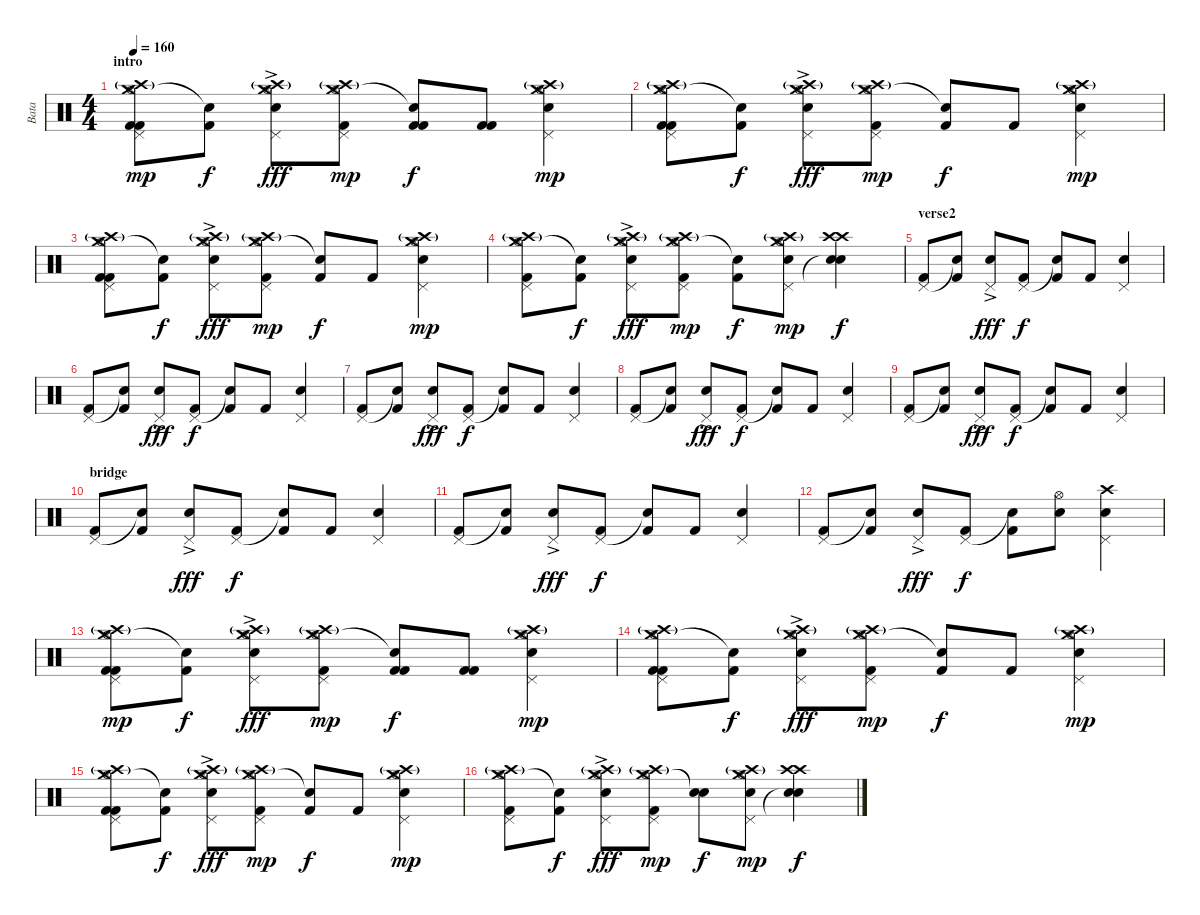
\track ("Bata" "Bata") {instrument percussion}
\staff {score}
\articulation defaults
\ts (4 4)
\section ("" "intro")
\tempo 160
\clef neutral
\ks c
("Crash medium (hit)" "Crash high (hit)"{g} "Pedal Hi-Hat (hit)" "Hi-Hat (open)" "Kick (hit) 2" "Kick (hit) 2").8{dy mp} ("Snare (hit)"{t} "Kick (hit) 2").8{dy f} ("Crash medium (hit)"{ac} "Crash high (hit)"{g} "Pedal Hi-Hat (hit)"{ac} "Hi-Hat (open)" "Snare (hit) 2").8{dy fff} ("Crash medium (hit)" "Crash high (hit)"{g} "Pedal Hi-Hat (hit)" "Hi-Hat (open)" "Kick (hit) 2").8{dy mp} ("Snare (hit)"{t} "Kick (hit) 2" "Kick (hit) 2").8{dy f} ("Kick (hit) 2" "Kick (hit) 2").8 ("Crash medium (hit)" "Crash high (hit)"{g} "Pedal Hi-Hat (hit)" "Hi-Hat (open)" "Snare (hit) 2").4{dy mp} |
("Crash medium (hit)" "Crash high (hit)"{g} "Pedal Hi-Hat (hit)" "Hi-Hat (open)" "Kick (hit) 2" "Kick (hit) 2").8 ("Snare (hit)"{t} "Kick (hit) 2").8{dy f} ("Crash medium (hit)"{ac} "Crash high (hit)"{g} "Pedal Hi-Hat (hit)"{ac} "Hi-Hat (open)" "Snare (hit) 2").8{dy fff} ("Crash medium (hit)" "Crash high (hit)"{g} "Pedal Hi-Hat (hit)" "Hi-Hat (open)" "Kick (hit) 2").8{dy mp} ("Snare (hit)"{t} "Kick (hit) 2").8{dy f} "Kick (hit) 2".8 ("Crash medium (hit)" "Crash high (hit)"{g} "Pedal Hi-Hat (hit)" "Hi-Hat (open)" "Snare (hit) 2").4{dy mp} |
("Crash medium (hit)" "Crash high (hit)"{g} "Pedal Hi-Hat (hit)" "Hi-Hat (open)" "Kick (hit) 2" "Kick (hit) 2").8 ("Snare (hit)"{t} "Kick (hit) 2").8{dy f} ("Crash medium (hit)"{ac} "Crash high (hit)"{g} "Pedal Hi-Hat (hit)"{ac} "Hi-Hat (open)" "Snare (hit) 2").8{dy fff} ("Crash medium (hit)" "Crash high (hit)"{g} "Pedal Hi-Hat (hit)" "Hi-Hat (open)" "Kick (hit) 2").8{dy mp} ("Snare (hit)"{t} "Kick (hit) 2").8{dy f} "Kick (hit) 2".8 ("Crash medium (hit)" "Crash high (hit)"{g} "Pedal Hi-Hat (hit)" "Hi-Hat (open)" "Snare (hit) 2").4{dy mp} |
("Crash medium (hit)" "Crash high (hit)"{g} "Pedal Hi-Hat (hit)" "Hi-Hat (open)" "Kick (hit) 2").8 ("Snare (hit)"{t} "Kick (hit) 2").8{dy f} ("Crash medium (hit)"{ac} "Crash high (hit)"{g} "Pedal Hi-Hat (hit)"{ac} "Hi-Hat (open)" "Snare (hit) 2").8{dy fff} ("Crash medium (hit)" "Crash high (hit)"{g} "Pedal Hi-Hat (hit)" "Hi-Hat (open)" "Kick (hit) 2").8{dy mp} ("Snare (hit)"{t} "Kick (hit) 2").8{dy f} ("Crash medium (hit)" "Crash high (hit)"{g} "Pedal Hi-Hat (hit)" "Hi-Hat (open)" "Snare (hit) 2").8{dy mp} ("Crash high (hit)" "Crash high (hit)" "Snare (hit)"{t} "Snare (hit) 2").4{dy f} |
\section ("" "verse2")
("Pedal Hi-Hat (hit)" "Kick (hit) 2").8 ("Snare (hit)"{t} "Kick (hit) 2").8 ("Pedal Hi-Hat (hit)"{ac} "Snare (hit) 2").8{dy fff} ("Pedal Hi-Hat (hit)" "Kick (hit) 2").8{dy f} ("Snare (hit)"{t} "Kick (hit) 2").8 "Kick (hit) 2".8 ("Pedal Hi-Hat (hit)" "Snare (hit) 2").4 |
("Pedal Hi-Hat (hit)" "Kick (hit) 2").8 ("Snare (hit)"{t} "Kick (hit) 2").8 ("Pedal Hi-Hat (hit)"{ac} "Snare (hit) 2").8{dy fff} ("Pedal Hi-Hat (hit)" "Kick (hit) 2").8{dy f} ("Snare (hit)"{t} "Kick (hit) 2").8 "Kick (hit) 2".8 ("Pedal Hi-Hat (hit)" "Snare (hit) 2").4 |
("Pedal Hi-Hat (hit)" "Kick (hit) 2").8 ("Snare (hit)"{t} "Kick (hit) 2").8 ("Pedal Hi-Hat (hit)"{ac} "Snare (hit) 2").8{dy fff} ("Pedal Hi-Hat (hit)" "Kick (hit) 2").8{dy f} ("Snare (hit)"{t} "Kick (hit) 2").8 "Kick (hit) 2".8 ("Pedal Hi-Hat (hit)" "Snare (hit) 2").4 |
("Pedal Hi-Hat (hit)" "Kick (hit) 2").8 ("Snare (hit)"{t} "Kick (hit) 2").8 ("Pedal Hi-Hat (hit)"{ac} "Snare (hit) 2").8{dy fff} ("Pedal Hi-Hat (hit)" "Kick (hit) 2").8{dy f} ("Snare (hit)"{t} "Kick (hit) 2").8 "Kick (hit) 2".8 ("Pedal Hi-Hat (hit)" "Snare (hit) 2").4 |
("Pedal Hi-Hat (hit)" "Kick (hit) 2").8 ("Snare (hit)"{t} "Kick (hit) 2").8 ("Pedal Hi-Hat (hit)"{ac} "Snare (hit) 2").8{dy fff} ("Pedal Hi-Hat (hit)" "Kick (hit) 2").8{dy f} ("Snare (hit)"{t} "Kick (hit) 2").8 "Kick (hit) 2".8 ("Pedal Hi-Hat (hit)" "Snare (hit) 2").4 |
\section ("" "bridge")
("Pedal Hi-Hat (hit)" "Kick (hit) 2").8 ("Snare (hit)"{t} "Kick (hit) 2").8 ("Pedal Hi-Hat (hit)"{ac} "Snare (hit) 2").8{dy fff} ("Pedal Hi-Hat (hit)" "Kick (hit) 2").8{dy f} ("Snare (hit)"{t} "Kick (hit) 2").8 "Kick (hit) 2".8 ("Pedal Hi-Hat (hit)" "Snare (hit) 2").4 |
("Pedal Hi-Hat (hit)" "Kick (hit) 2").8 ("Snare (hit)"{t} "Kick (hit) 2").8 ("Pedal Hi-Hat (hit)"{ac} "Snare (hit) 2").8{dy fff} ("Pedal Hi-Hat (hit)" "Kick (hit) 2").8{dy f} ("Snare (hit)"{t} "Kick (hit) 2").8 "Kick (hit) 2".8 ("Pedal Hi-Hat (hit)" "Snare (hit) 2").4 |
("Pedal Hi-Hat (hit)" "Kick (hit) 2").8 ("Snare (hit)"{t} "Kick (hit) 2").8 ("Pedal Hi-Hat (hit)"{ac} "Snare (hit) 2").8{dy fff} ("Pedal Hi-Hat (hit)" "Kick (hit) 2").8{dy f} ("Snare (hit)"{t} "Kick (hit) 2").8 ("Hi-Hat (open)" "Snare (hit) 2").8 ("Crash high (hit)" "Pedal Hi-Hat (hit)" "Snare (hit) 2").4 |
("Crash medium (hit)" "Crash high (hit)"{g} "Pedal Hi-Hat (hit)" "Hi-Hat (open)" "Kick (hit) 2" "Kick (hit) 2").8{dy mp} ("Snare (hit)"{t} "Kick (hit) 2").8{dy f} ("Crash medium (hit)"{ac} "Crash high (hit)"{g} "Pedal Hi-Hat (hit)"{ac} "Hi-Hat (open)" "Snare (hit) 2").8{dy fff} ("Crash medium (hit)" "Crash high (hit)"{g} "Pedal Hi-Hat (hit)" "Hi-Hat (open)" "Kick (hit) 2").8{dy mp} ("Snare (hit)"{t} "Kick (hit) 2" "Kick (hit) 2").8{dy f} ("Kick (hit) 2" "Kick (hit) 2").8 ("Crash medium (hit)" "Crash high (hit)"{g} "Pedal Hi-Hat (hit)" "Hi-Hat (open)" "Snare (hit) 2").4{dy mp} |
("Crash medium (hit)" "Crash high (hit)"{g} "Pedal Hi-Hat (hit)" "Hi-Hat (open)" "Kick (hit) 2" "Kick (hit) 2").8 ("Snare (hit)"{t} "Kick (hit) 2").8{dy f} ("Crash medium (hit)"{ac} "Crash high (hit)"{g} "Pedal Hi-Hat (hit)"{ac} "Hi-Hat (open)" "Snare (hit) 2").8{dy fff} ("Crash medium (hit)" "Crash high (hit)"{g} "Pedal Hi-Hat (hit)" "Hi-Hat (open)" "Kick (hit) 2").8{dy mp} ("Snare (hit)"{t} "Kick (hit) 2").8{dy f} "Kick (hit) 2".8 ("Crash medium (hit)" "Crash high (hit)"{g} "Pedal Hi-Hat (hit)" "Hi-Hat (open)" "Snare (hit) 2").4{dy mp} |
("Crash medium (hit)" "Crash high (hit)"{g} "Pedal Hi-Hat (hit)" "Hi-Hat (open)" "Kick (hit) 2" "Kick (hit) 2").8 ("Snare (hit)"{t} "Kick (hit) 2").8{dy f} ("Crash medium (hit)"{ac} "Crash high (hit)"{g} "Pedal Hi-Hat (hit)"{ac} "Hi-Hat (open)" "Snare (hit) 2").8{dy fff} ("Crash medium (hit)" "Crash high (hit)"{g} "Pedal Hi-Hat (hit)" "Hi-Hat (open)" "Kick (hit) 2").8{dy mp} ("Snare (hit)"{t} "Kick (hit) 2").8{dy f} "Kick (hit) 2".8 ("Crash medium (hit)" "Crash high (hit)"{g} "Pedal Hi-Hat (hit)" "Hi-Hat (open)" "Snare (hit) 2").4{dy mp} |
("Crash medium (hit)" "Crash high (hit)"{g} "Pedal Hi-Hat (hit)" "Hi-Hat (open)" "Kick (hit) 2").8 ("Snare (hit)"{t} "Kick (hit) 2").8{dy f} ("Crash medium (hit)"{ac} "Crash high (hit)"{g} "Pedal Hi-Hat (hit)"{ac} "Hi-Hat (open)" "Snare (hit) 2").8{dy fff} ("Crash medium (hit)" "Crash high (hit)"{g} "Pedal Hi-Hat (hit)" "Hi-Hat (open)" "Kick (hit) 2").8{dy mp} ("Snare (hit)"{t} "Snare (hit) 2").8{dy f} ("Crash medium (hit)" "Crash high (hit)"{g} "Pedal Hi-Hat (hit)" "Hi-Hat (open)" "Snare (hit) 2").8{dy mp} ("Crash high (hit)" "Crash high (hit)" "Snare (hit)"{t} "Snare (hit) 2").4{dy f}
